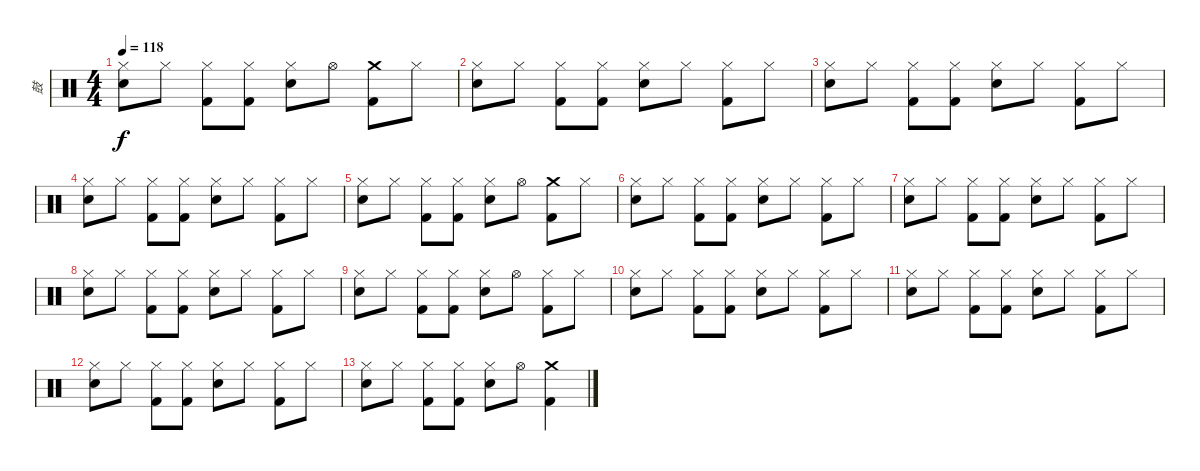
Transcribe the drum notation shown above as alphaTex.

\track ("鼓" "鼓") {instrument percussion}
\staff {score}
\articulation defaults
\ts (4 4)
\tempo 118
\clef neutral
\ks c
("Hi-Hat (closed)" "Electric Snare (hit)").8{dy f} "Hi-Hat (closed)".8 ("Hi-Hat (closed)" "Kick (hit) 2").8 ("Hi-Hat (closed)" "Kick (hit) 2").8 ("Hi-Hat (closed)" "Electric Snare (hit)").8 "Hi-Hat (open)".8 ("Crash medium (hit)" "Kick (hit) 2").8 "Hi-Hat (closed)".8 |
("Hi-Hat (closed)" "Electric Snare (hit)").8 "Hi-Hat (closed)".8 ("Hi-Hat (closed)" "Kick (hit) 2").8 ("Hi-Hat (closed)" "Kick (hit) 2").8 ("Hi-Hat (closed)" "Electric Snare (hit)").8 "Hi-Hat (closed)".8 ("Hi-Hat (closed)" "Kick (hit) 2").8 "Hi-Hat (closed)".8 |
("Hi-Hat (closed)" "Electric Snare (hit)").8 "Hi-Hat (closed)".8 ("Hi-Hat (closed)" "Kick (hit) 2").8 ("Hi-Hat (closed)" "Kick (hit) 2").8 ("Hi-Hat (closed)" "Electric Snare (hit)").8 "Hi-Hat (closed)".8 ("Hi-Hat (closed)" "Kick (hit) 2").8 "Hi-Hat (closed)".8 |
("Hi-Hat (closed)" "Electric Snare (hit)").8 "Hi-Hat (closed)".8 ("Hi-Hat (closed)" "Kick (hit) 2").8 ("Hi-Hat (closed)" "Kick (hit) 2").8 ("Hi-Hat (closed)" "Electric Snare (hit)").8 "Hi-Hat (closed)".8 ("Hi-Hat (closed)" "Kick (hit) 2").8 "Hi-Hat (closed)".8 |
("Hi-Hat (closed)" "Electric Snare (hit)").8 "Hi-Hat (closed)".8 ("Hi-Hat (closed)" "Kick (hit) 2").8 ("Hi-Hat (closed)" "Kick (hit) 2").8 ("Hi-Hat (closed)" "Electric Snare (hit)").8 "Hi-Hat (open)".8 ("Crash medium (hit)" "Kick (hit) 2").8 "Hi-Hat (closed)".8 |
("Hi-Hat (closed)" "Electric Snare (hit)").8 "Hi-Hat (closed)".8 ("Hi-Hat (closed)" "Kick (hit) 2").8 ("Hi-Hat (closed)" "Kick (hit) 2").8 ("Hi-Hat (closed)" "Electric Snare (hit)").8 "Hi-Hat (closed)".8 ("Hi-Hat (closed)" "Kick (hit) 2").8 "Hi-Hat (closed)".8 |
("Hi-Hat (closed)" "Electric Snare (hit)").8 "Hi-Hat (closed)".8 ("Hi-Hat (closed)" "Kick (hit) 2").8 ("Hi-Hat (closed)" "Kick (hit) 2").8 ("Hi-Hat (closed)" "Electric Snare (hit)").8 "Hi-Hat (closed)".8 ("Hi-Hat (closed)" "Kick (hit) 2").8 "Hi-Hat (closed)".8 |
("Hi-Hat (closed)" "Electric Snare (hit)").8 "Hi-Hat (closed)".8 ("Hi-Hat (closed)" "Kick (hit) 2").8 ("Hi-Hat (closed)" "Kick (hit) 2").8 ("Hi-Hat (closed)" "Electric Snare (hit)").8 "Hi-Hat (closed)".8 ("Hi-Hat (closed)" "Kick (hit) 2").8 "Hi-Hat (closed)".8 |
("Hi-Hat (closed)" "Electric Snare (hit)").8 "Hi-Hat (closed)".8 ("Hi-Hat (closed)" "Kick (hit) 2").8 ("Hi-Hat (closed)" "Kick (hit) 2").8 ("Hi-Hat (closed)" "Electric Snare (hit)").8 "Hi-Hat (open)".8 ("Hi-Hat (closed)" "Kick (hit) 2").8 "Hi-Hat (closed)".8 |
("Hi-Hat (closed)" "Electric Snare (hit)").8 "Hi-Hat (closed)".8 ("Hi-Hat (closed)" "Kick (hit) 2").8 ("Hi-Hat (closed)" "Kick (hit) 2").8 ("Hi-Hat (closed)" "Electric Snare (hit)").8 "Hi-Hat (closed)".8 ("Hi-Hat (closed)" "Kick (hit) 2").8 "Hi-Hat (closed)".8 |
("Hi-Hat (closed)" "Electric Snare (hit)").8 "Hi-Hat (closed)".8 ("Hi-Hat (closed)" "Kick (hit) 2").8 ("Hi-Hat (closed)" "Kick (hit) 2").8 ("Hi-Hat (closed)" "Electric Snare (hit)").8 "Hi-Hat (closed)".8 ("Hi-Hat (closed)" "Kick (hit) 2").8 "Hi-Hat (closed)".8 |
("Hi-Hat (closed)" "Electric Snare (hit)").8 "Hi-Hat (closed)".8 ("Hi-Hat (closed)" "Kick (hit) 2").8 ("Hi-Hat (closed)" "Kick (hit) 2").8 ("Hi-Hat (closed)" "Electric Snare (hit)").8 "Hi-Hat (closed)".8 ("Hi-Hat (closed)" "Kick (hit) 2").8 "Hi-Hat (closed)".8 |
("Hi-Hat (closed)" "Electric Snare (hit)").8 "Hi-Hat (closed)".8 ("Hi-Hat (closed)" "Kick (hit) 2").8 ("Hi-Hat (closed)" "Kick (hit) 2").8 ("Hi-Hat (closed)" "Electric Snare (hit)").8 "Hi-Hat (open)".8 ("Crash medium (hit)" "Kick (hit) 2").4
